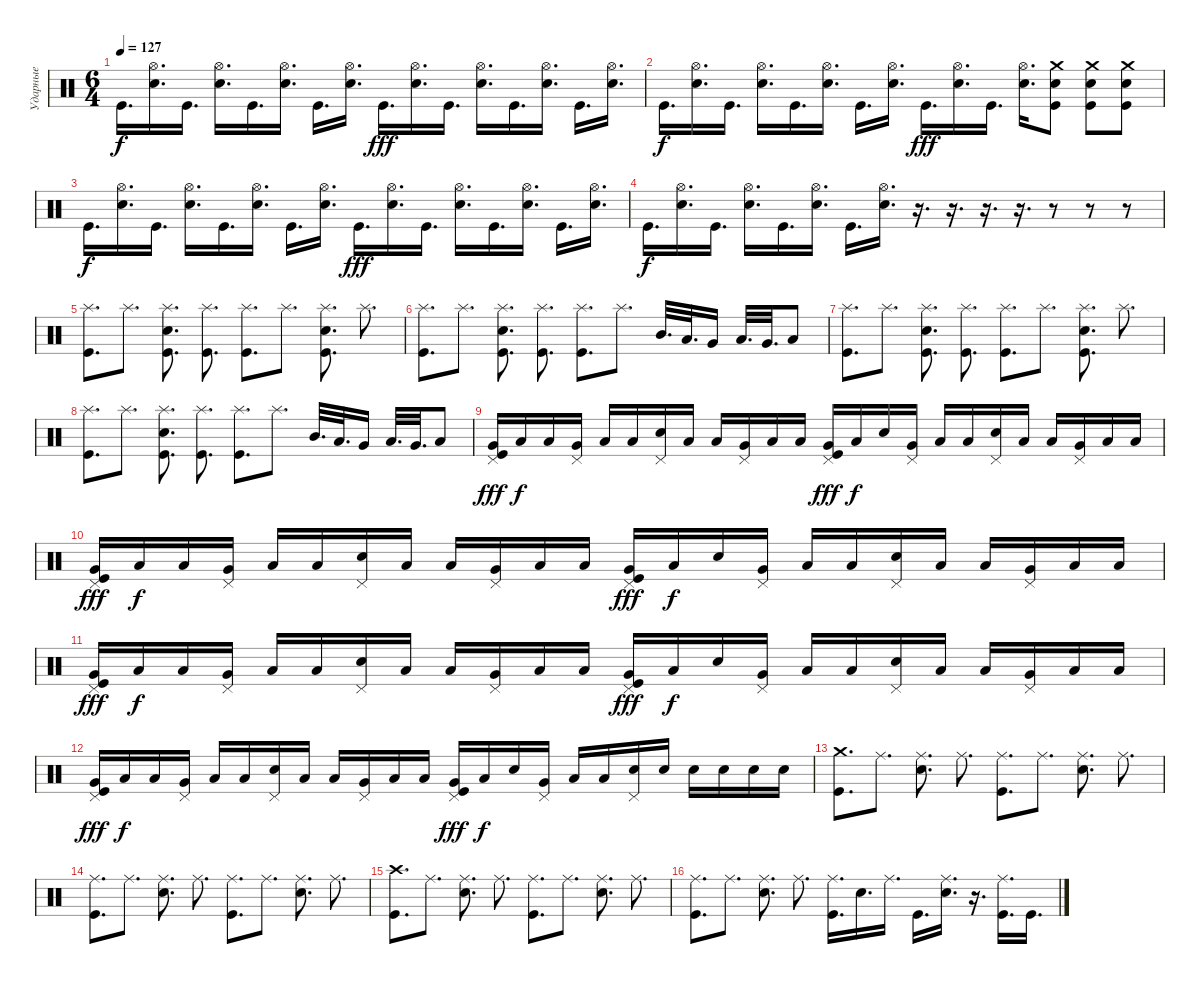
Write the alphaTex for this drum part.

\track ("Ударные" "Ударные") {instrument percussion}
\staff {score}
\articulation defaults
\ts (6 4)
\tempo 127
\clef neutral
\ks c "Kick (hit)".16{d dy f}
("Hi-Hat (open)" "Electric Snare (hit)").16{d} "Kick (hit)".16{d} ("Hi-Hat (open)" "Electric Snare (hit)").16{d} "Kick (hit)".16{d} ("Hi-Hat (open)" "Electric Snare (hit)").16{d} "Kick (hit)".16{d} ("Hi-Hat (open)" "Electric Snare (hit)").16{d} "Kick (hit)".16{d dy fff} ("Hi-Hat (open)" "Electric Snare (hit)").16{d} "Kick (hit)".16{d} ("Hi-Hat (open)" "Electric Snare (hit)").16{d} "Kick (hit)".16{d} ("Hi-Hat (open)" "Electric Snare (hit)").16{d} "Kick (hit)".16{d} ("Hi-Hat (open)" "Electric Snare (hit)").16{d} |
"Kick (hit)".16{d dy f} ("Hi-Hat (open)" "Electric Snare (hit)").16{d} "Kick (hit)".16{d} ("Hi-Hat (open)" "Electric Snare (hit)").16{d} "Kick (hit)".16{d} ("Hi-Hat (open)" "Electric Snare (hit)").16{d} "Kick (hit)".16{d} ("Hi-Hat (open)" "Electric Snare (hit)").16{d} "Kick (hit)".16{d dy fff} ("Hi-Hat (open)" "Electric Snare (hit)").16{d} "Kick (hit)".16{d} ("Hi-Hat (open)" "Electric Snare (hit)").16{d} ("Crash medium (hit)" "Electric Snare (hit)" "Kick (hit)").8 ("Crash medium (hit)" "Electric Snare (hit)" "Kick (hit)").8 ("Crash medium (hit)" "Electric Snare (hit)" "Kick (hit)").8 |
"Kick (hit)".16{d dy f} ("Hi-Hat (open)" "Electric Snare (hit)").16{d} "Kick (hit)".16{d} ("Hi-Hat (open)" "Electric Snare (hit)").16{d} "Kick (hit)".16{d} ("Hi-Hat (open)" "Electric Snare (hit)").16{d} "Kick (hit)".16{d} ("Hi-Hat (open)" "Electric Snare (hit)").16{d} "Kick (hit)".16{d dy fff} ("Hi-Hat (open)" "Electric Snare (hit)").16{d} "Kick (hit)".16{d} ("Hi-Hat (open)" "Electric Snare (hit)").16{d} "Kick (hit)".16{d} ("Hi-Hat (open)" "Electric Snare (hit)").16{d} "Kick (hit)".16{d} ("Hi-Hat (open)" "Electric Snare (hit)").16{d} |
"Kick (hit)".16{d dy f} ("Hi-Hat (open)" "Electric Snare (hit)").16{d} "Kick (hit)".16{d} ("Hi-Hat (open)" "Electric Snare (hit)").16{d} "Kick (hit)".16{d} ("Hi-Hat (open)" "Electric Snare (hit)").16{d} "Kick (hit)".16{d} ("Hi-Hat (open)" "Electric Snare (hit)").16{d} r.16{d} r.16{d} r.16{d} r.16{d} r.8 r.8 r.8 |
("Splash (hit)" "Kick (hit)").8{d} "Splash (hit)".8{d} ("Splash (hit)" "Electric Snare (hit)" "Kick (hit)").8{d} ("Splash (hit)" "Kick (hit)").8{d} ("Splash (hit)" "Kick (hit)").8{d} "Splash (hit)".8{d} ("Splash (hit)" "Electric Snare (hit)" "Kick (hit)").8{d} "Splash (hit)".8{d} |
("Splash (hit)" "Kick (hit)").8{d} "Splash (hit)".8{d} ("Splash (hit)" "Electric Snare (hit)" "Kick (hit)").8{d} ("Splash (hit)" "Kick (hit)").8{d} ("Splash (hit)" "Kick (hit)").8{d} "Splash (hit)".8{d} "Mid Tom (hit)".32{d} "Low Tom (hit)".32{d} "Very Low Tom (hit)".16 "Low Tom (hit)".32{d} "Very Low Tom (hit)".32{d} "Low Floor Tom (hit)".8 |
("Splash (hit)" "Kick (hit)").8{d} "Splash (hit)".8{d} ("Splash (hit)" "Electric Snare (hit)" "Kick (hit)").8{d} ("Splash (hit)" "Kick (hit)").8{d} ("Splash (hit)" "Kick (hit)").8{d} "Splash (hit)".8{d} ("Splash (hit)" "Electric Snare (hit)" "Kick (hit)").8{d} "Splash (hit)".8{d} |
("Splash (hit)" "Kick (hit)").8{d} "Splash (hit)".8{d} ("Splash (hit)" "Electric Snare (hit)" "Kick (hit)").8{d} ("Splash (hit)" "Kick (hit)").8{d} ("Splash (hit)" "Kick (hit)").8{d} "Splash (hit)".8{d} "Mid Tom (hit)".32{d} "Low Tom (hit)".32{d} "Very Low Tom (hit)".16 "Low Tom (hit)".32{d} "Very Low Tom (hit)".32{d} "Low Floor Tom (hit)".8 |
("Very Low Tom (hit)" "Pedal Hi-Hat (hit)" "Kick (hit)").16{dy fff} "Low Floor Tom (hit)".16{dy f} "Low Floor Tom (hit)".16 ("Very Low Tom (hit)" "Pedal Hi-Hat (hit)").16 "Low Floor Tom (hit)".16 "Low Floor Tom (hit)".16 ("Pedal Hi-Hat (hit)" "Electric Snare (hit)").16 "Low Floor Tom (hit)".16 "Low Floor Tom (hit)".16 ("Very Low Tom (hit)" "Pedal Hi-Hat (hit)").16 "Low Floor Tom (hit)".16 "Low Floor Tom (hit)".16 ("Very Low Tom (hit)" "Pedal Hi-Hat (hit)" "Kick (hit)").16{dy fff} "Low Floor Tom (hit)".16{dy f} "Snare (hit)".16 ("Very Low Tom (hit)" "Pedal Hi-Hat (hit)").16 "Low Floor Tom (hit)".16 "Low Floor Tom (hit)".16 ("Pedal Hi-Hat (hit)" "Electric Snare (hit)").16 "Low Floor Tom (hit)".16 "Low Floor Tom (hit)".16 ("Very Low Tom (hit)" "Pedal Hi-Hat (hit)").16 "Low Floor Tom (hit)".16 "Low Floor Tom (hit)".16 |
("Very Low Tom (hit)" "Pedal Hi-Hat (hit)" "Kick (hit)").16{dy fff} "Low Floor Tom (hit)".16{dy f} "Low Floor Tom (hit)".16 ("Very Low Tom (hit)" "Pedal Hi-Hat (hit)").16 "Low Floor Tom (hit)".16 "Low Floor Tom (hit)".16 ("Pedal Hi-Hat (hit)" "Electric Snare (hit)").16 "Low Floor Tom (hit)".16 "Low Floor Tom (hit)".16 ("Very Low Tom (hit)" "Pedal Hi-Hat (hit)").16 "Low Floor Tom (hit)".16 "Low Floor Tom (hit)".16 ("Very Low Tom (hit)" "Pedal Hi-Hat (hit)" "Kick (hit)").16{dy fff} "Low Floor Tom (hit)".16{dy f} "Snare (hit)".16 ("Very Low Tom (hit)" "Pedal Hi-Hat (hit)").16 "Low Floor Tom (hit)".16 "Low Floor Tom (hit)".16 ("Pedal Hi-Hat (hit)" "Electric Snare (hit)").16 "Low Floor Tom (hit)".16 "Low Floor Tom (hit)".16 ("Very Low Tom (hit)" "Pedal Hi-Hat (hit)").16 "Low Floor Tom (hit)".16 "Low Floor Tom (hit)".16 |
("Very Low Tom (hit)" "Pedal Hi-Hat (hit)" "Kick (hit)").16{dy fff} "Low Floor Tom (hit)".16{dy f} "Low Floor Tom (hit)".16 ("Very Low Tom (hit)" "Pedal Hi-Hat (hit)").16 "Low Floor Tom (hit)".16 "Low Floor Tom (hit)".16 ("Pedal Hi-Hat (hit)" "Electric Snare (hit)").16 "Low Floor Tom (hit)".16 "Low Floor Tom (hit)".16 ("Very Low Tom (hit)" "Pedal Hi-Hat (hit)").16 "Low Floor Tom (hit)".16 "Low Floor Tom (hit)".16 ("Very Low Tom (hit)" "Pedal Hi-Hat (hit)" "Kick (hit)").16{dy fff} "Low Floor Tom (hit)".16{dy f} "Snare (hit)".16 ("Very Low Tom (hit)" "Pedal Hi-Hat (hit)").16 "Low Floor Tom (hit)".16 "Low Floor Tom (hit)".16 ("Pedal Hi-Hat (hit)" "Electric Snare (hit)").16 "Low Floor Tom (hit)".16 "Low Floor Tom (hit)".16 ("Very Low Tom (hit)" "Pedal Hi-Hat (hit)").16 "Low Floor Tom (hit)".16 "Low Floor Tom (hit)".16 |
("Very Low Tom (hit)" "Pedal Hi-Hat (hit)" "Kick (hit)").16{dy fff} "Low Floor Tom (hit)".16{dy f} "Low Floor Tom (hit)".16 ("Very Low Tom (hit)" "Pedal Hi-Hat (hit)").16 "Low Floor Tom (hit)".16 "Low Floor Tom (hit)".16 ("Pedal Hi-Hat (hit)" "Electric Snare (hit)").16 "Low Floor Tom (hit)".16 "Low Floor Tom (hit)".16 ("Very Low Tom (hit)" "Pedal Hi-Hat (hit)").16 "Low Floor Tom (hit)".16 "Low Floor Tom (hit)".16 ("Very Low Tom (hit)" "Pedal Hi-Hat (hit)" "Kick (hit)").16{dy fff} "Low Floor Tom (hit)".16{dy f} "Snare (hit)".16 ("Very Low Tom (hit)" "Pedal Hi-Hat (hit)").16 "Low Floor Tom (hit)".16 "Low Floor Tom (hit)".16 ("Electric Snare (hit)" "Pedal Hi-Hat (hit)").16 "Electric Snare (hit)".16 "Electric Snare (hit)".16 "Electric Snare (hit)".16 "Electric Snare (hit)".16 "Electric Snare (hit)".16 |
("Crash medium (hit)" "Kick (hit)").8{d} "Ride (middle)".8{d} ("Ride (middle)" "Electric Snare (hit)").8{d} "Ride (middle)".8{d} ("Ride (middle)" "Kick (hit)").8{d} "Ride (middle)".8{d} ("Ride (middle)" "Electric Snare (hit)").8{d} "Ride (middle)".8{d} |
("Ride (middle)" "Kick (hit)").8{d} "Ride (middle)".8{d} ("Ride (middle)" "Electric Snare (hit)").8{d} "Ride (middle)".8{d} ("Ride (middle)" "Kick (hit)").8{d} "Ride (middle)".8{d} ("Ride (middle)" "Electric Snare (hit)").8{d} "Ride (middle)".8{d} |
("Crash high (hit)" "Kick (hit)").8{d} "Ride (middle)".8{d} ("Ride (middle)" "Electric Snare (hit)").8{d} "Ride (middle)".8{d} ("Ride (middle)" "Kick (hit)").8{d} "Ride (middle)".8{d} ("Ride (middle)" "Electric Snare (hit)").8{d} "Ride (middle)".8{d} |
("Ride (middle)" "Kick (hit)").8{d} "Ride (middle)".8{d} ("Ride (middle)" "Electric Snare (hit)").8{d} "Ride (middle)".8{d} ("Ride (middle)" "Kick (hit)").16{d} "Electric Snare (hit)".16{d} "Ride (middle)".16{d} "Kick (hit)".16{d} ("Ride (middle)" "Electric Snare (hit)").16{d} r.16{d} ("Ride (middle)" "Kick (hit)").16{d} "Kick (hit)".16{d}
